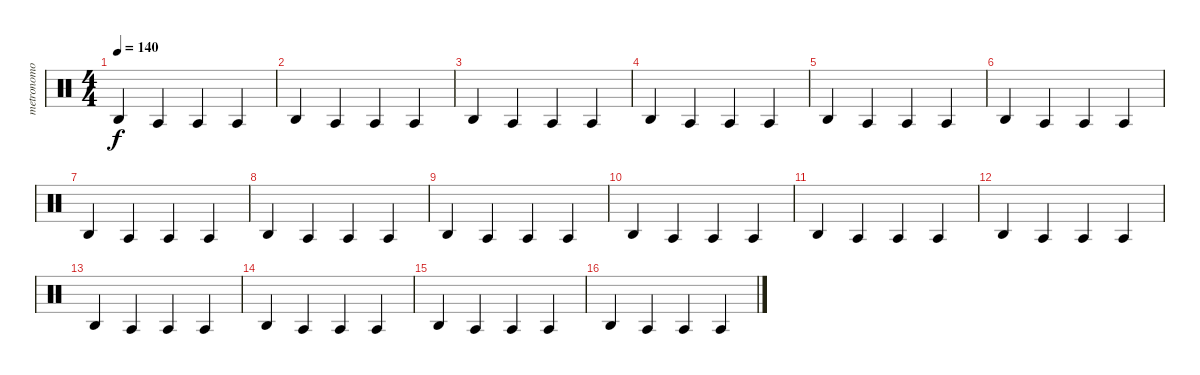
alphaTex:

\track ("metronomo" "metronomo") {mute instrument percussion}
\staff {score}
\articulation defaults
\ts (4 4)
\tempo 140
\clef neutral
\ks c "Agogo high (hit)".4{dy f} "Agogo tow (hit)".4 "Agogo tow (hit)".4 "Agogo tow (hit)".4
|
"Agogo high (hit)".4 "Agogo tow (hit)".4 "Agogo tow (hit)".4 "Agogo tow (hit)".4 |
"Agogo high (hit)".4 "Agogo tow (hit)".4 "Agogo tow (hit)".4 "Agogo tow (hit)".4 |
"Agogo high (hit)".4 "Agogo tow (hit)".4 "Agogo tow (hit)".4 "Agogo tow (hit)".4 |
"Agogo high (hit)".4 "Agogo tow (hit)".4 "Agogo tow (hit)".4 "Agogo tow (hit)".4 |
"Agogo high (hit)".4 "Agogo tow (hit)".4 "Agogo tow (hit)".4 "Agogo tow (hit)".4 |
"Agogo high (hit)".4 "Agogo tow (hit)".4 "Agogo tow (hit)".4 "Agogo tow (hit)".4 |
"Agogo high (hit)".4 "Agogo tow (hit)".4 "Agogo tow (hit)".4 "Agogo tow (hit)".4 |
"Agogo high (hit)".4 "Agogo tow (hit)".4 "Agogo tow (hit)".4 "Agogo tow (hit)".4 |
"Agogo high (hit)".4 "Agogo tow (hit)".4 "Agogo tow (hit)".4 "Agogo tow (hit)".4 |
"Agogo high (hit)".4 "Agogo tow (hit)".4 "Agogo tow (hit)".4 "Agogo tow (hit)".4 |
"Agogo high (hit)".4 "Agogo tow (hit)".4 "Agogo tow (hit)".4 "Agogo tow (hit)".4 |
"Agogo high (hit)".4 "Agogo tow (hit)".4 "Agogo tow (hit)".4 "Agogo tow (hit)".4 |
"Agogo high (hit)".4 "Agogo tow (hit)".4 "Agogo tow (hit)".4 "Agogo tow (hit)".4 |
"Agogo high (hit)".4 "Agogo tow (hit)".4 "Agogo tow (hit)".4 "Agogo tow (hit)".4 |
"Agogo high (hit)".4 "Agogo tow (hit)".4 "Agogo tow (hit)".4 "Agogo tow (hit)".4
